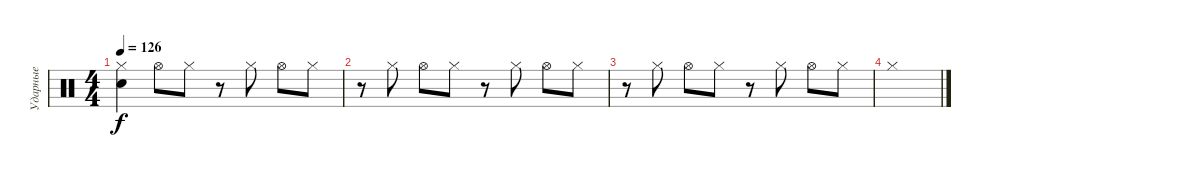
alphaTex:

\track ("Ударные" "Ударные") {instrument percussion}
\staff {score}
\articulation defaults
\ts (4 4)
\tempo 126
\clef neutral
\ks c
("Hi-Hat (closed)" "Snare (hit) 2").4{dy f} "Hi-Hat (open)".8 "Hi-Hat (closed)".8 r.8 "Hi-Hat (closed)".8 "Hi-Hat (open)".8 "Hi-Hat (closed)".8 |
r.8 "Hi-Hat (closed)".8 "Hi-Hat (open)".8 "Hi-Hat (closed)".8 r.8 "Hi-Hat (closed)".8 "Hi-Hat (open)".8 "Hi-Hat (closed)".8 |
r.8 "Hi-Hat (closed)".8 "Hi-Hat (open)".8 "Hi-Hat (closed)".8 r.8 "Hi-Hat (closed)".8 "Hi-Hat (open)".8 "Hi-Hat (closed)".8 |
"Hi-Hat (closed)".1
